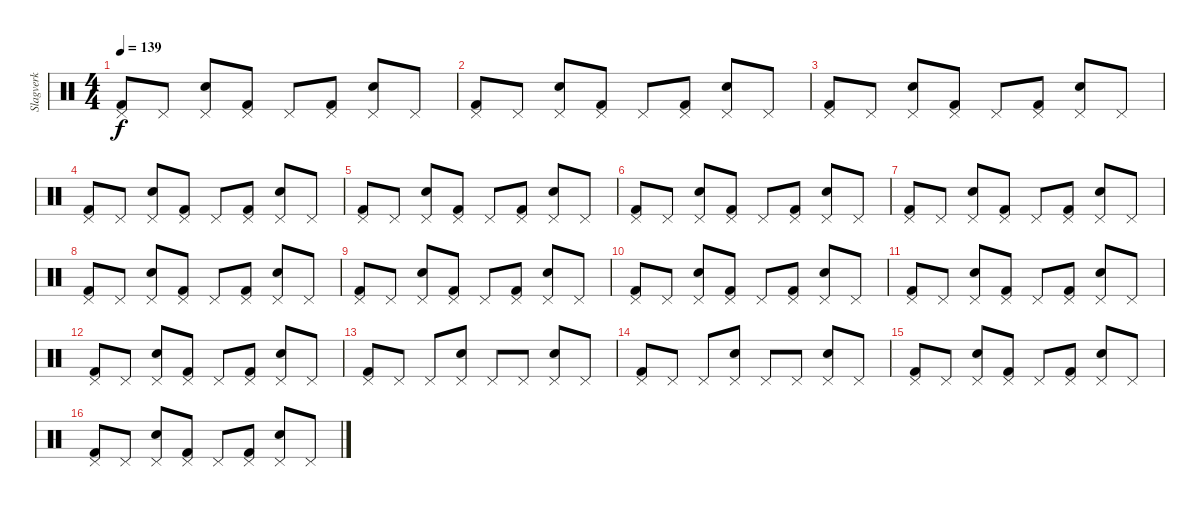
\track ("Slagverk" "Slagverk") {instrument percussion}
\staff {score}
\articulation defaults
\ts (4 4)
\tempo 139
\clef neutral
\ks c
("Pedal Hi-Hat (hit)" "Kick (hit) 2").8{dy f} "Pedal Hi-Hat (hit)".8 ("Pedal Hi-Hat (hit)" "Snare (hit) 2").8 ("Pedal Hi-Hat (hit)" "Kick (hit) 2").8 "Pedal Hi-Hat (hit)".8 ("Pedal Hi-Hat (hit)" "Kick (hit) 2").8 ("Pedal Hi-Hat (hit)" "Snare (hit) 2").8 "Pedal Hi-Hat (hit)".8 |
("Pedal Hi-Hat (hit)" "Kick (hit) 2").8 "Pedal Hi-Hat (hit)".8 ("Pedal Hi-Hat (hit)" "Snare (hit) 2").8 ("Pedal Hi-Hat (hit)" "Kick (hit) 2").8 "Pedal Hi-Hat (hit)".8 ("Pedal Hi-Hat (hit)" "Kick (hit) 2").8 ("Pedal Hi-Hat (hit)" "Snare (hit) 2").8 "Pedal Hi-Hat (hit)".8 |
("Pedal Hi-Hat (hit)" "Kick (hit) 2").8 "Pedal Hi-Hat (hit)".8 ("Pedal Hi-Hat (hit)" "Snare (hit) 2").8 ("Pedal Hi-Hat (hit)" "Kick (hit) 2").8 "Pedal Hi-Hat (hit)".8 ("Pedal Hi-Hat (hit)" "Kick (hit) 2").8 ("Pedal Hi-Hat (hit)" "Snare (hit) 2").8 "Pedal Hi-Hat (hit)".8 |
("Pedal Hi-Hat (hit)" "Kick (hit) 2").8 "Pedal Hi-Hat (hit)".8 ("Pedal Hi-Hat (hit)" "Snare (hit) 2").8 ("Pedal Hi-Hat (hit)" "Kick (hit) 2").8 "Pedal Hi-Hat (hit)".8 ("Pedal Hi-Hat (hit)" "Kick (hit) 2").8 ("Pedal Hi-Hat (hit)" "Snare (hit) 2").8 "Pedal Hi-Hat (hit)".8 |
("Pedal Hi-Hat (hit)" "Kick (hit) 2").8 "Pedal Hi-Hat (hit)".8 ("Pedal Hi-Hat (hit)" "Snare (hit) 2").8 ("Pedal Hi-Hat (hit)" "Kick (hit) 2").8 "Pedal Hi-Hat (hit)".8 ("Pedal Hi-Hat (hit)" "Kick (hit) 2").8 ("Pedal Hi-Hat (hit)" "Snare (hit) 2").8 "Pedal Hi-Hat (hit)".8 |
("Pedal Hi-Hat (hit)" "Kick (hit) 2").8 "Pedal Hi-Hat (hit)".8 ("Pedal Hi-Hat (hit)" "Snare (hit) 2").8 ("Pedal Hi-Hat (hit)" "Kick (hit) 2").8 "Pedal Hi-Hat (hit)".8 ("Pedal Hi-Hat (hit)" "Kick (hit) 2").8 ("Pedal Hi-Hat (hit)" "Snare (hit) 2").8 "Pedal Hi-Hat (hit)".8 |
("Pedal Hi-Hat (hit)" "Kick (hit) 2").8 "Pedal Hi-Hat (hit)".8 ("Pedal Hi-Hat (hit)" "Snare (hit) 2").8 ("Pedal Hi-Hat (hit)" "Kick (hit) 2").8 "Pedal Hi-Hat (hit)".8 ("Pedal Hi-Hat (hit)" "Kick (hit) 2").8 ("Pedal Hi-Hat (hit)" "Snare (hit) 2").8 "Pedal Hi-Hat (hit)".8 |
("Pedal Hi-Hat (hit)" "Kick (hit) 2").8 "Pedal Hi-Hat (hit)".8 ("Pedal Hi-Hat (hit)" "Snare (hit) 2").8 ("Pedal Hi-Hat (hit)" "Kick (hit) 2").8 "Pedal Hi-Hat (hit)".8 ("Pedal Hi-Hat (hit)" "Kick (hit) 2").8 ("Pedal Hi-Hat (hit)" "Snare (hit) 2").8 "Pedal Hi-Hat (hit)".8 |
("Pedal Hi-Hat (hit)" "Kick (hit) 2").8 "Pedal Hi-Hat (hit)".8 ("Pedal Hi-Hat (hit)" "Snare (hit) 2").8 ("Pedal Hi-Hat (hit)" "Kick (hit) 2").8 "Pedal Hi-Hat (hit)".8 ("Pedal Hi-Hat (hit)" "Kick (hit) 2").8 ("Pedal Hi-Hat (hit)" "Snare (hit) 2").8 "Pedal Hi-Hat (hit)".8 |
("Pedal Hi-Hat (hit)" "Kick (hit) 2").8 "Pedal Hi-Hat (hit)".8 ("Pedal Hi-Hat (hit)" "Snare (hit) 2").8 ("Pedal Hi-Hat (hit)" "Kick (hit) 2").8 "Pedal Hi-Hat (hit)".8 ("Pedal Hi-Hat (hit)" "Kick (hit) 2").8 ("Pedal Hi-Hat (hit)" "Snare (hit) 2").8 "Pedal Hi-Hat (hit)".8 |
("Pedal Hi-Hat (hit)" "Kick (hit) 2").8 "Pedal Hi-Hat (hit)".8 ("Pedal Hi-Hat (hit)" "Snare (hit) 2").8 ("Pedal Hi-Hat (hit)" "Kick (hit) 2").8 "Pedal Hi-Hat (hit)".8 ("Pedal Hi-Hat (hit)" "Kick (hit) 2").8 ("Pedal Hi-Hat (hit)" "Snare (hit) 2").8 "Pedal Hi-Hat (hit)".8 |
("Pedal Hi-Hat (hit)" "Kick (hit) 2").8 "Pedal Hi-Hat (hit)".8 ("Pedal Hi-Hat (hit)" "Snare (hit) 2").8 ("Pedal Hi-Hat (hit)" "Kick (hit) 2").8 "Pedal Hi-Hat (hit)".8 ("Pedal Hi-Hat (hit)" "Kick (hit) 2").8 ("Pedal Hi-Hat (hit)" "Snare (hit) 2").8 "Pedal Hi-Hat (hit)".8 |
("Pedal Hi-Hat (hit)" "Kick (hit) 2").8 "Pedal Hi-Hat (hit)".8 "Pedal Hi-Hat (hit)".8 ("Pedal Hi-Hat (hit)" "Snare (hit) 2").8 "Pedal Hi-Hat (hit)".8 "Pedal Hi-Hat (hit)".8 ("Pedal Hi-Hat (hit)" "Snare (hit) 2").8 "Pedal Hi-Hat (hit)".8 |
("Pedal Hi-Hat (hit)" "Kick (hit) 2").8 "Pedal Hi-Hat (hit)".8 "Pedal Hi-Hat (hit)".8 ("Pedal Hi-Hat (hit)" "Snare (hit) 2").8 "Pedal Hi-Hat (hit)".8 "Pedal Hi-Hat (hit)".8 ("Pedal Hi-Hat (hit)" "Snare (hit) 2").8 "Pedal Hi-Hat (hit)".8 |
("Pedal Hi-Hat (hit)" "Kick (hit) 2").8 "Pedal Hi-Hat (hit)".8 ("Pedal Hi-Hat (hit)" "Snare (hit) 2").8 ("Pedal Hi-Hat (hit)" "Kick (hit) 2").8 "Pedal Hi-Hat (hit)".8 ("Pedal Hi-Hat (hit)" "Kick (hit) 2").8 ("Pedal Hi-Hat (hit)" "Snare (hit) 2").8 "Pedal Hi-Hat (hit)".8 |
("Pedal Hi-Hat (hit)" "Kick (hit) 2").8 "Pedal Hi-Hat (hit)".8 ("Pedal Hi-Hat (hit)" "Snare (hit) 2").8 ("Pedal Hi-Hat (hit)" "Kick (hit) 2").8 "Pedal Hi-Hat (hit)".8 ("Pedal Hi-Hat (hit)" "Kick (hit) 2").8 ("Pedal Hi-Hat (hit)" "Snare (hit) 2").8 "Pedal Hi-Hat (hit)".8
